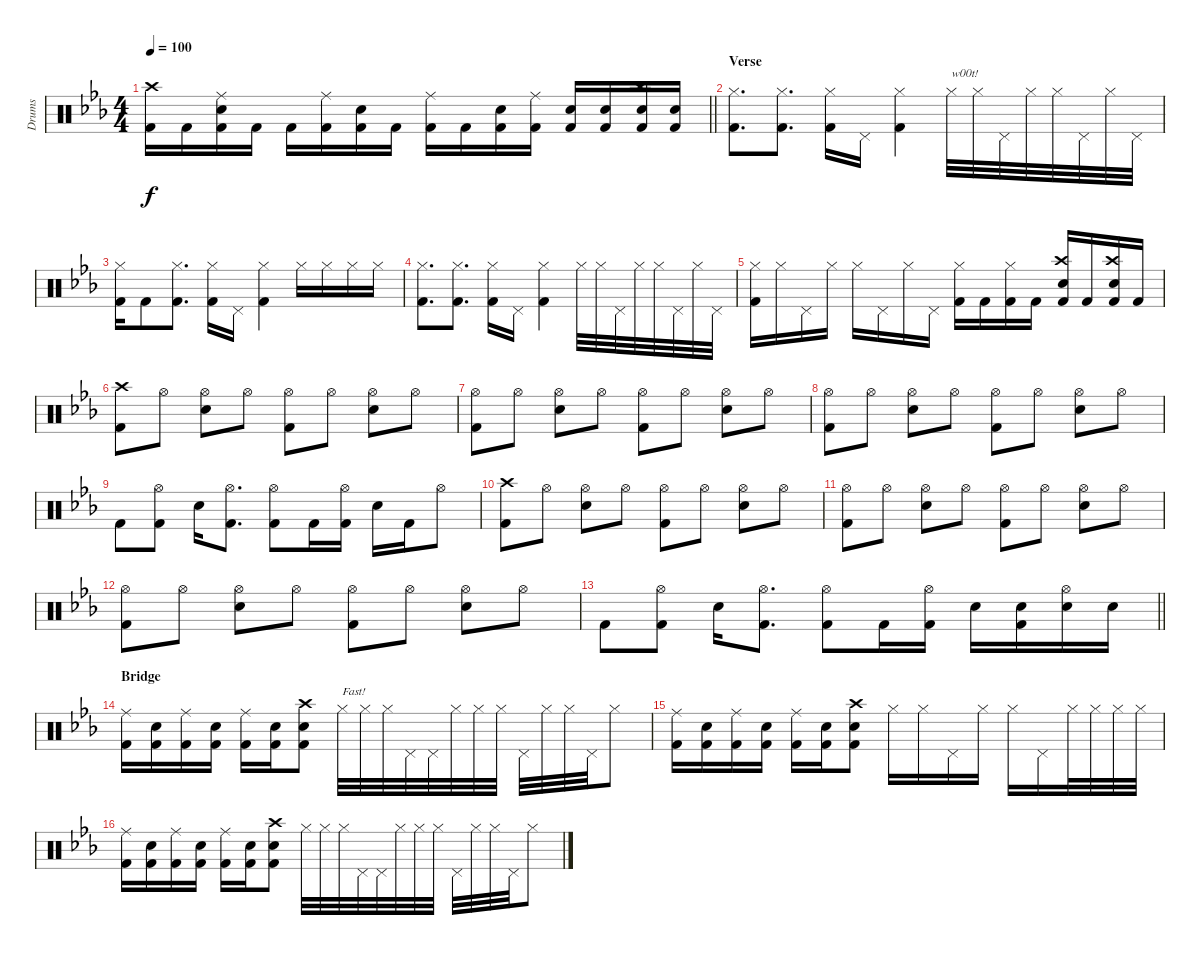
\track ("Drums" "Drums") {instrument percussion}
\staff {score}
\articulation defaults
\ts (4 4)
\tempo 100
\clef neutral
\barLineRight lightlight
\ks eb
("Kick (hit) 2" "Crash high (hit)").16{dy f} "Kick (hit) 2".16 ("Kick (hit) 2" "Snare (hit) 2" "Ride (middle)").16 "Kick (hit) 2".16 "Kick (hit) 2".16 ("Kick (hit) 2" "Ride (middle)").16 ("Kick (hit) 2" "Snare (hit) 2").16 "Kick (hit) 2".16 ("Kick (hit) 2" "Ride (middle)").16 "Kick (hit) 2".16 ("Kick (hit) 2" "Snare (hit) 2").16 ("Kick (hit) 2" "Ride (middle)").16 ("Kick (hit) 2" "Snare (hit) 2").16 ("Kick (hit) 2" "Snare (hit) 2").16 ("Kick (hit) 2" "Snare (hit) 2" "Crash high (hit)").16 ("Kick (hit) 2" "Snare (hit) 2").16 |
\section ("" "Verse")
("Kick (hit) 2" "Hi-Hat (closed)").8{d} ("Kick (hit) 2" "Hi-Hat (closed)").8{d} ("Kick (hit) 2" "Hi-Hat (closed)").16 "Pedal Hi-Hat (hit)".16 ("Kick (hit) 2" "Hi-Hat (closed)").4 "Hi-Hat (closed)".32{txt "w00t!"} "Hi-Hat (closed)".32 "Pedal Hi-Hat (hit)".32 "Hi-Hat (closed)".32 "Hi-Hat (closed)".32 "Pedal Hi-Hat (hit)".32 "Hi-Hat (closed)".32 "Pedal Hi-Hat (hit)".32 |
("Kick (hit) 2" "Hi-Hat (closed)").16 "Kick (hit) 2".8 ("Kick (hit) 2" "Hi-Hat (closed)").8{d} ("Kick (hit) 2" "Hi-Hat (closed)").16 "Pedal Hi-Hat (hit)".16 ("Kick (hit) 2" "Hi-Hat (closed)").4 "Hi-Hat (closed)".16 "Hi-Hat (closed)".16 "Hi-Hat (closed)".16 "Hi-Hat (closed)".16 |
("Kick (hit) 2" "Hi-Hat (closed)").8{d} ("Kick (hit) 2" "Hi-Hat (closed)").8{d} ("Kick (hit) 2" "Hi-Hat (closed)").16 "Pedal Hi-Hat (hit)".16 ("Kick (hit) 2" "Hi-Hat (closed)").4 "Hi-Hat (closed)".32 "Hi-Hat (closed)".32 "Pedal Hi-Hat (hit)".32 "Hi-Hat (closed)".32 "Hi-Hat (closed)".32 "Pedal Hi-Hat (hit)".32 "Hi-Hat (closed)".32 "Pedal Hi-Hat (hit)".32 |
("Kick (hit) 2" "Hi-Hat (closed)").16 "Hi-Hat (closed)".16 "Pedal Hi-Hat (hit)".16 "Hi-Hat (closed)".16 "Hi-Hat (closed)".16 "Pedal Hi-Hat (hit)".16 "Hi-Hat (closed)".16 "Pedal Hi-Hat (hit)".16 ("Kick (hit) 2" "Hi-Hat (closed)").16 "Kick (hit) 2".16 ("Kick (hit) 2" "Hi-Hat (closed)").16 "Kick (hit) 2".16 ("Kick (hit) 2" "Snare (hit) 2" "Crash high (hit)").16 "Kick (hit) 2".16 ("Kick (hit) 2" "Snare (hit) 2" "Crash high (hit)").16 "Kick (hit) 2".16 |
("Crash high (hit)" "Kick (hit) 2").8 "Hi-Hat (open)".8 ("Hi-Hat (open)" "Snare (hit) 2").8 "Hi-Hat (open)".8 ("Hi-Hat (open)" "Kick (hit) 2").8 "Hi-Hat (open)".8 ("Hi-Hat (open)" "Snare (hit) 2").8 "Hi-Hat (open)".8 |
("Hi-Hat (open)" "Kick (hit) 2").8 "Hi-Hat (open)".8 ("Hi-Hat (open)" "Snare (hit) 2").8 "Hi-Hat (open)".8 ("Hi-Hat (open)" "Kick (hit) 2").8 "Hi-Hat (open)".8 ("Hi-Hat (open)" "Snare (hit) 2").8 "Hi-Hat (open)".8 |
("Hi-Hat (open)" "Kick (hit) 2").8 "Hi-Hat (open)".8 ("Hi-Hat (open)" "Snare (hit) 2").8 "Hi-Hat (open)".8 ("Hi-Hat (open)" "Kick (hit) 2").8 "Hi-Hat (open)".8 ("Hi-Hat (open)" "Snare (hit) 2").8 "Hi-Hat (open)".8 |
"Kick (hit) 2".8 ("Hi-Hat (open)" "Kick (hit) 2").8 "Snare (hit) 2".16 ("Hi-Hat (open)" "Kick (hit) 2").8{d} ("Kick (hit) 2" "Hi-Hat (open)").8 "Kick (hit) 2".16 ("Hi-Hat (open)" "Kick (hit) 2").16 "Snare (hit) 2".16 "Kick (hit) 2".16 "Hi-Hat (open)".8 |
("Crash high (hit)" "Kick (hit) 2").8 "Hi-Hat (open)".8 ("Hi-Hat (open)" "Snare (hit) 2").8 "Hi-Hat (open)".8 ("Hi-Hat (open)" "Kick (hit) 2").8 "Hi-Hat (open)".8 ("Hi-Hat (open)" "Snare (hit) 2").8 "Hi-Hat (open)".8 |
("Hi-Hat (open)" "Kick (hit) 2").8 "Hi-Hat (open)".8 ("Hi-Hat (open)" "Snare (hit) 2").8 "Hi-Hat (open)".8 ("Hi-Hat (open)" "Kick (hit) 2").8 "Hi-Hat (open)".8 ("Hi-Hat (open)" "Snare (hit) 2").8 "Hi-Hat (open)".8 |
("Hi-Hat (open)" "Kick (hit) 2").8 "Hi-Hat (open)".8 ("Hi-Hat (open)" "Snare (hit) 2").8 "Hi-Hat (open)".8 ("Hi-Hat (open)" "Kick (hit) 2").8 "Hi-Hat (open)".8 ("Hi-Hat (open)" "Snare (hit) 2").8 "Hi-Hat (open)".8 |
\barLineRight lightlight "Kick (hit) 2".8
("Hi-Hat (open)" "Kick (hit) 2").8 "Snare (hit) 2".16 ("Hi-Hat (open)" "Kick (hit) 2").8{d} ("Kick (hit) 2" "Hi-Hat (open)").8 "Kick (hit) 2".16 ("Hi-Hat (open)" "Kick (hit) 2").16 "Snare (hit) 2".16 ("Kick (hit) 2" "Snare (hit) 2").16 ("Hi-Hat (open)" "Snare (hit) 2").16 "Snare (hit) 2".16 |
\section ("" "Bridge")
("Kick (hit) 2" "Ride (middle)").16 ("Kick (hit) 2" "Snare (hit) 2").16 ("Kick (hit) 2" "Ride (middle)").16 ("Kick (hit) 2" "Snare (hit) 2").16 ("Kick (hit) 2" "Ride (middle)").16 ("Kick (hit) 2" "Snare (hit) 2").16 ("Kick (hit) 2" "Snare (hit) 2" "Crash high (hit)").8 "Hi-Hat (closed)".32{txt "Fast!"} "Hi-Hat (closed)".32 "Hi-Hat (closed)".32 "Pedal Hi-Hat (hit)".32 "Pedal Hi-Hat (hit)".32 "Hi-Hat (closed)".32 "Hi-Hat (closed)".32 "Hi-Hat (closed)".32 "Pedal Hi-Hat (hit)".32 "Hi-Hat (closed)".32 "Hi-Hat (closed)".32 "Pedal Hi-Hat (hit)".32 "Hi-Hat (closed)".8 |
("Kick (hit) 2" "Ride (middle)").16 ("Kick (hit) 2" "Snare (hit) 2").16 ("Kick (hit) 2" "Ride (middle)").16 ("Kick (hit) 2" "Snare (hit) 2").16 ("Kick (hit) 2" "Ride (middle)").16 ("Kick (hit) 2" "Snare (hit) 2").16 ("Kick (hit) 2" "Snare (hit) 2" "Crash high (hit)").8 "Hi-Hat (closed)".16 "Hi-Hat (closed)".16 "Pedal Hi-Hat (hit)".16 "Hi-Hat (closed)".16 "Hi-Hat (closed)".16 "Pedal Hi-Hat (hit)".16 "Hi-Hat (closed)".32 "Hi-Hat (closed)".32 "Hi-Hat (closed)".32 "Hi-Hat (closed)".32 |
("Kick (hit) 2" "Ride (middle)").16 ("Kick (hit) 2" "Snare (hit) 2").16 ("Kick (hit) 2" "Ride (middle)").16 ("Kick (hit) 2" "Snare (hit) 2").16 ("Kick (hit) 2" "Ride (middle)").16 ("Kick (hit) 2" "Snare (hit) 2").16 ("Kick (hit) 2" "Snare (hit) 2" "Crash high (hit)").8 "Hi-Hat (closed)".32 "Hi-Hat (closed)".32 "Hi-Hat (closed)".32 "Pedal Hi-Hat (hit)".32 "Pedal Hi-Hat (hit)".32 "Hi-Hat (closed)".32 "Hi-Hat (closed)".32 "Hi-Hat (closed)".32 "Pedal Hi-Hat (hit)".32 "Hi-Hat (closed)".32 "Hi-Hat (closed)".32 "Pedal Hi-Hat (hit)".32 "Hi-Hat (closed)".8
